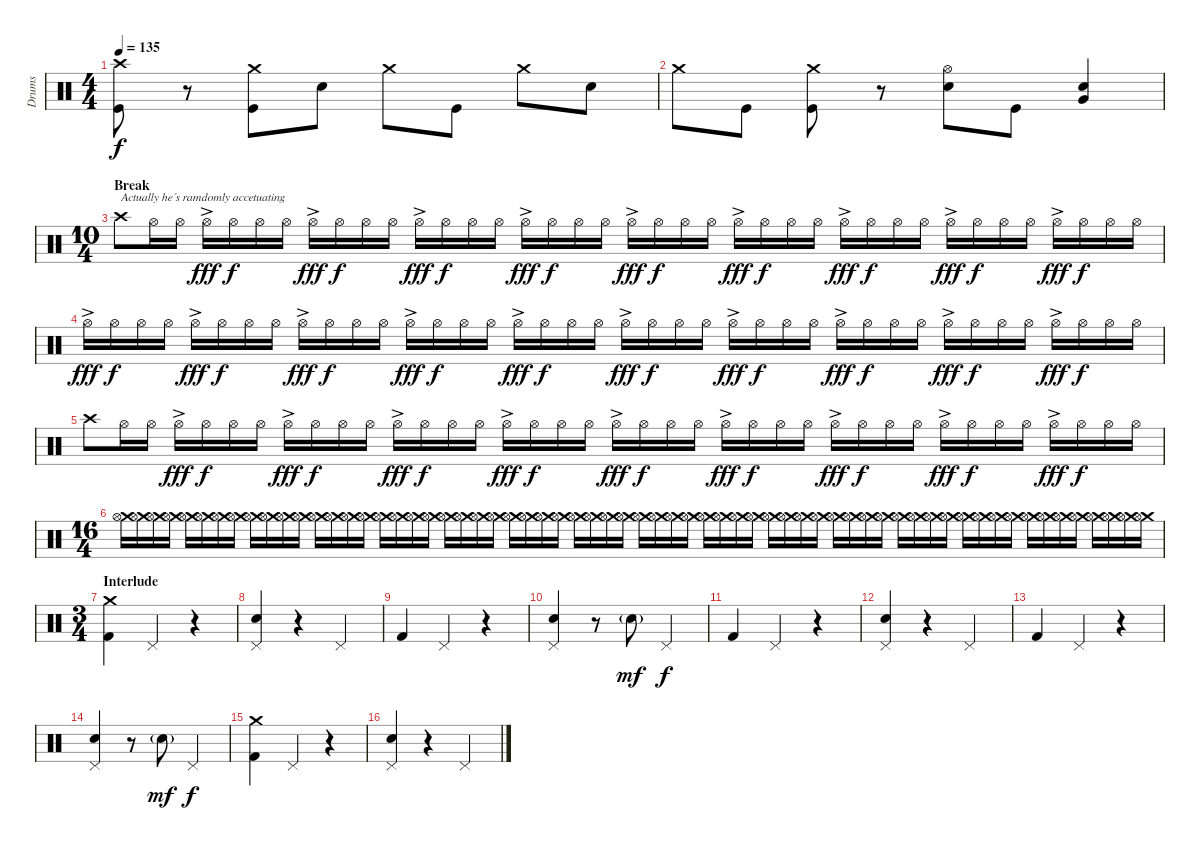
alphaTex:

\track ("Drums" "Drums") {instrument percussion}
\staff {score}
\articulation defaults
\ts (4 4)
\tempo 135
\clef neutral
\ks c
("Crash high (hit)" "Kick (hit)").8{dy f} r.8 ("Crash medium (hit)" "Kick (hit)").8 "Snare (hit) 2".8 "Crash medium (hit)".8 "Kick (hit)".8 "Crash medium (hit)".8 "Snare (hit) 2".8 |
"Crash medium (hit)".8 "Kick (hit)".8 ("Crash medium (hit)" "Kick (hit)").8 r.8 ("Hi-Hat (open)" "Snare (hit) 2").8 "Kick (hit)".8 ("Snare (hit) 2" "Very Low Tom (hit)").4 |
\ts (10 4)
\section ("" "Break")
"Crash high (hit)".8{txt "Actually he´s ramdomly accetuating"} "Hi-Hat (open)".16 "Hi-Hat (open)".16 "Hi-Hat (open)"{ac}.16{dy fff} "Hi-Hat (open)".16{dy f} "Hi-Hat (open)".16 "Hi-Hat (open)".16 "Hi-Hat (open)"{ac}.16{dy fff} "Hi-Hat (open)".16{dy f} "Hi-Hat (open)".16 "Hi-Hat (open)".16 "Hi-Hat (open)"{ac}.16{dy fff} "Hi-Hat (open)".16{dy f} "Hi-Hat (open)".16 "Hi-Hat (open)".16 "Hi-Hat (open)"{ac}.16{dy fff} "Hi-Hat (open)".16{dy f} "Hi-Hat (open)".16 "Hi-Hat (open)".16 "Hi-Hat (open)"{ac}.16{dy fff} "Hi-Hat (open)".16{dy f} "Hi-Hat (open)".16 "Hi-Hat (open)".16 "Hi-Hat (open)"{ac}.16{dy fff} "Hi-Hat (open)".16{dy f} "Hi-Hat (open)".16 "Hi-Hat (open)".16 "Hi-Hat (open)"{ac}.16{dy fff} "Hi-Hat (open)".16{dy f} "Hi-Hat (open)".16 "Hi-Hat (open)".16 "Hi-Hat (open)"{ac}.16{dy fff} "Hi-Hat (open)".16{dy f} "Hi-Hat (open)".16 "Hi-Hat (open)".16 "Hi-Hat (open)"{ac}.16{dy fff} "Hi-Hat (open)".16{dy f} "Hi-Hat (open)".16 "Hi-Hat (open)".16 |
"Hi-Hat (open)"{ac}.16{dy fff} "Hi-Hat (open)".16{dy f} "Hi-Hat (open)".16 "Hi-Hat (open)".16 "Hi-Hat (open)"{ac}.16{dy fff} "Hi-Hat (open)".16{dy f} "Hi-Hat (open)".16 "Hi-Hat (open)".16 "Hi-Hat (open)"{ac}.16{dy fff} "Hi-Hat (open)".16{dy f} "Hi-Hat (open)".16 "Hi-Hat (open)".16 "Hi-Hat (open)"{ac}.16{dy fff} "Hi-Hat (open)".16{dy f} "Hi-Hat (open)".16 "Hi-Hat (open)".16 "Hi-Hat (open)"{ac}.16{dy fff} "Hi-Hat (open)".16{dy f} "Hi-Hat (open)".16 "Hi-Hat (open)".16 "Hi-Hat (open)"{ac}.16{dy fff} "Hi-Hat (open)".16{dy f} "Hi-Hat (open)".16 "Hi-Hat (open)".16 "Hi-Hat (open)"{ac}.16{dy fff} "Hi-Hat (open)".16{dy f} "Hi-Hat (open)".16 "Hi-Hat (open)".16 "Hi-Hat (open)"{ac}.16{dy fff} "Hi-Hat (open)".16{dy f} "Hi-Hat (open)".16 "Hi-Hat (open)".16 "Hi-Hat (open)"{ac}.16{dy fff} "Hi-Hat (open)".16{dy f} "Hi-Hat (open)".16 "Hi-Hat (open)".16 "Hi-Hat (open)"{ac}.16{dy fff} "Hi-Hat (open)".16{dy f} "Hi-Hat (open)".16 "Hi-Hat (open)".16 |
"Crash high (hit)".8 "Hi-Hat (open)".16 "Hi-Hat (open)".16 "Hi-Hat (open)"{ac}.16{dy fff} "Hi-Hat (open)".16{dy f} "Hi-Hat (open)".16 "Hi-Hat (open)".16 "Hi-Hat (open)"{ac}.16{dy fff} "Hi-Hat (open)".16{dy f} "Hi-Hat (open)".16 "Hi-Hat (open)".16 "Hi-Hat (open)"{ac}.16{dy fff} "Hi-Hat (open)".16{dy f} "Hi-Hat (open)".16 "Hi-Hat (open)".16 "Hi-Hat (open)"{ac}.16{dy fff} "Hi-Hat (open)".16{dy f} "Hi-Hat (open)".16 "Hi-Hat (open)".16 "Hi-Hat (open)"{ac}.16{dy fff} "Hi-Hat (open)".16{dy f} "Hi-Hat (open)".16 "Hi-Hat (open)".16 "Hi-Hat (open)"{ac}.16{dy fff} "Hi-Hat (open)".16{dy f} "Hi-Hat (open)".16 "Hi-Hat (open)".16 "Hi-Hat (open)"{ac}.16{dy fff} "Hi-Hat (open)".16{dy f} "Hi-Hat (open)".16 "Hi-Hat (open)".16 "Hi-Hat (open)"{ac}.16{dy fff} "Hi-Hat (open)".16{dy f} "Hi-Hat (open)".16 "Hi-Hat (open)".16 "Hi-Hat (open)"{ac}.16{dy fff} "Hi-Hat (open)".16{dy f} "Hi-Hat (open)".16 "Hi-Hat (open)".16 |
\ts (16 4)
("Crash medium (hit)" "Hi-Hat (open)").16 ("Crash medium (hit)" "Hi-Hat (open)").16 ("Crash medium (hit)" "Hi-Hat (open)").16 ("Crash medium (hit)" "Hi-Hat (open)").16 ("Crash medium (hit)" "Hi-Hat (open)").16 ("Crash medium (hit)" "Hi-Hat (open)").16 ("Crash medium (hit)" "Hi-Hat (open)").16 ("Crash medium (hit)" "Hi-Hat (open)").16 ("Crash medium (hit)" "Hi-Hat (open)").16 ("Crash medium (hit)" "Hi-Hat (open)").16 ("Crash medium (hit)" "Hi-Hat (open)").16 ("Crash medium (hit)" "Hi-Hat (open)").16 ("Crash medium (hit)" "Hi-Hat (open)").16 ("Crash medium (hit)" "Hi-Hat (open)").16 ("Crash medium (hit)" "Hi-Hat (open)").16 ("Crash medium (hit)" "Hi-Hat (open)").16 ("Crash medium (hit)" "Hi-Hat (open)").16 ("Crash medium (hit)" "Hi-Hat (open)").16 ("Crash medium (hit)" "Hi-Hat (open)").16 ("Crash medium (hit)" "Hi-Hat (open)").16 ("Crash medium (hit)" "Hi-Hat (open)").16 ("Crash medium (hit)" "Hi-Hat (open)").16 ("Crash medium (hit)" "Hi-Hat (open)").16 ("Crash medium (hit)" "Hi-Hat (open)").16 ("Crash medium (hit)" "Hi-Hat (open)").16 ("Crash medium (hit)" "Hi-Hat (open)").16 ("Crash medium (hit)" "Hi-Hat (open)").16 ("Crash medium (hit)" "Hi-Hat (open)").16 ("Crash medium (hit)" "Hi-Hat (open)").16 ("Crash medium (hit)" "Hi-Hat (open)").16 ("Crash medium (hit)" "Hi-Hat (open)").16 ("Crash medium (hit)" "Hi-Hat (open)").16 ("Crash medium (hit)" "Hi-Hat (open)").16 ("Crash medium (hit)" "Hi-Hat (open)").16 ("Crash medium (hit)" "Hi-Hat (open)").16 ("Crash medium (hit)" "Hi-Hat (open)").16 ("Crash medium (hit)" "Hi-Hat (open)").16 ("Crash medium (hit)" "Hi-Hat (open)").16 ("Crash medium (hit)" "Hi-Hat (open)").16 ("Crash medium (hit)" "Hi-Hat (open)").16 ("Crash medium (hit)" "Hi-Hat (open)").16 ("Crash medium (hit)" "Hi-Hat (open)").16 ("Crash medium (hit)" "Hi-Hat (open)").16 ("Crash medium (hit)" "Hi-Hat (open)").16 ("Crash medium (hit)" "Hi-Hat (open)").16 ("Crash medium (hit)" "Hi-Hat (open)").16 ("Crash medium (hit)" "Hi-Hat (open)").16 ("Crash medium (hit)" "Hi-Hat (open)").16 ("Crash medium (hit)" "Hi-Hat (open)").16 ("Crash medium (hit)" "Hi-Hat (open)").16 ("Crash medium (hit)" "Hi-Hat (open)").16 ("Crash medium (hit)" "Hi-Hat (open)").16 ("Crash medium (hit)" "Hi-Hat (open)").16 ("Crash medium (hit)" "Hi-Hat (open)").16 ("Crash medium (hit)" "Hi-Hat (open)").16 ("Crash medium (hit)" "Hi-Hat (open)").16 ("Crash medium (hit)" "Hi-Hat (open)").16 ("Crash medium (hit)" "Hi-Hat (open)").16 ("Crash medium (hit)" "Hi-Hat (open)").16 ("Crash medium (hit)" "Hi-Hat (open)").16 ("Crash medium (hit)" "Hi-Hat (open)").16 ("Crash medium (hit)" "Hi-Hat (open)").16 ("Crash medium (hit)" "Hi-Hat (open)").16 ("Crash medium (hit)" "Hi-Hat (open)").16 |
\ts (3 4)
\section ("" "Interlude")
("Crash medium (hit)" "Kick (hit) 2").4{volume 14} "Pedal Hi-Hat (hit)".4 r.4 |
("Pedal Hi-Hat (hit)" "Snare (hit) 2").4 r.4 "Pedal Hi-Hat (hit)".4 |
"Kick (hit) 2".4 "Pedal Hi-Hat (hit)".4 r.4 |
("Pedal Hi-Hat (hit)" "Snare (hit) 2").4 r.8 "Snare (hit) 2"{g}.8{dy mf} "Pedal Hi-Hat (hit)".4{dy f} |
"Kick (hit) 2".4 "Pedal Hi-Hat (hit)".4 r.4 |
("Pedal Hi-Hat (hit)" "Snare (hit) 2").4 r.4 "Pedal Hi-Hat (hit)".4 |
"Kick (hit) 2".4 "Pedal Hi-Hat (hit)".4 r.4 |
("Pedal Hi-Hat (hit)" "Snare (hit) 2").4 r.8 "Snare (hit) 2"{g}.8{dy mf} "Pedal Hi-Hat (hit)".4{dy f} |
("Crash medium (hit)" "Kick (hit) 2").4 "Pedal Hi-Hat (hit)".4 r.4 |
("Pedal Hi-Hat (hit)" "Snare (hit) 2").4 r.4 "Pedal Hi-Hat (hit)".4
